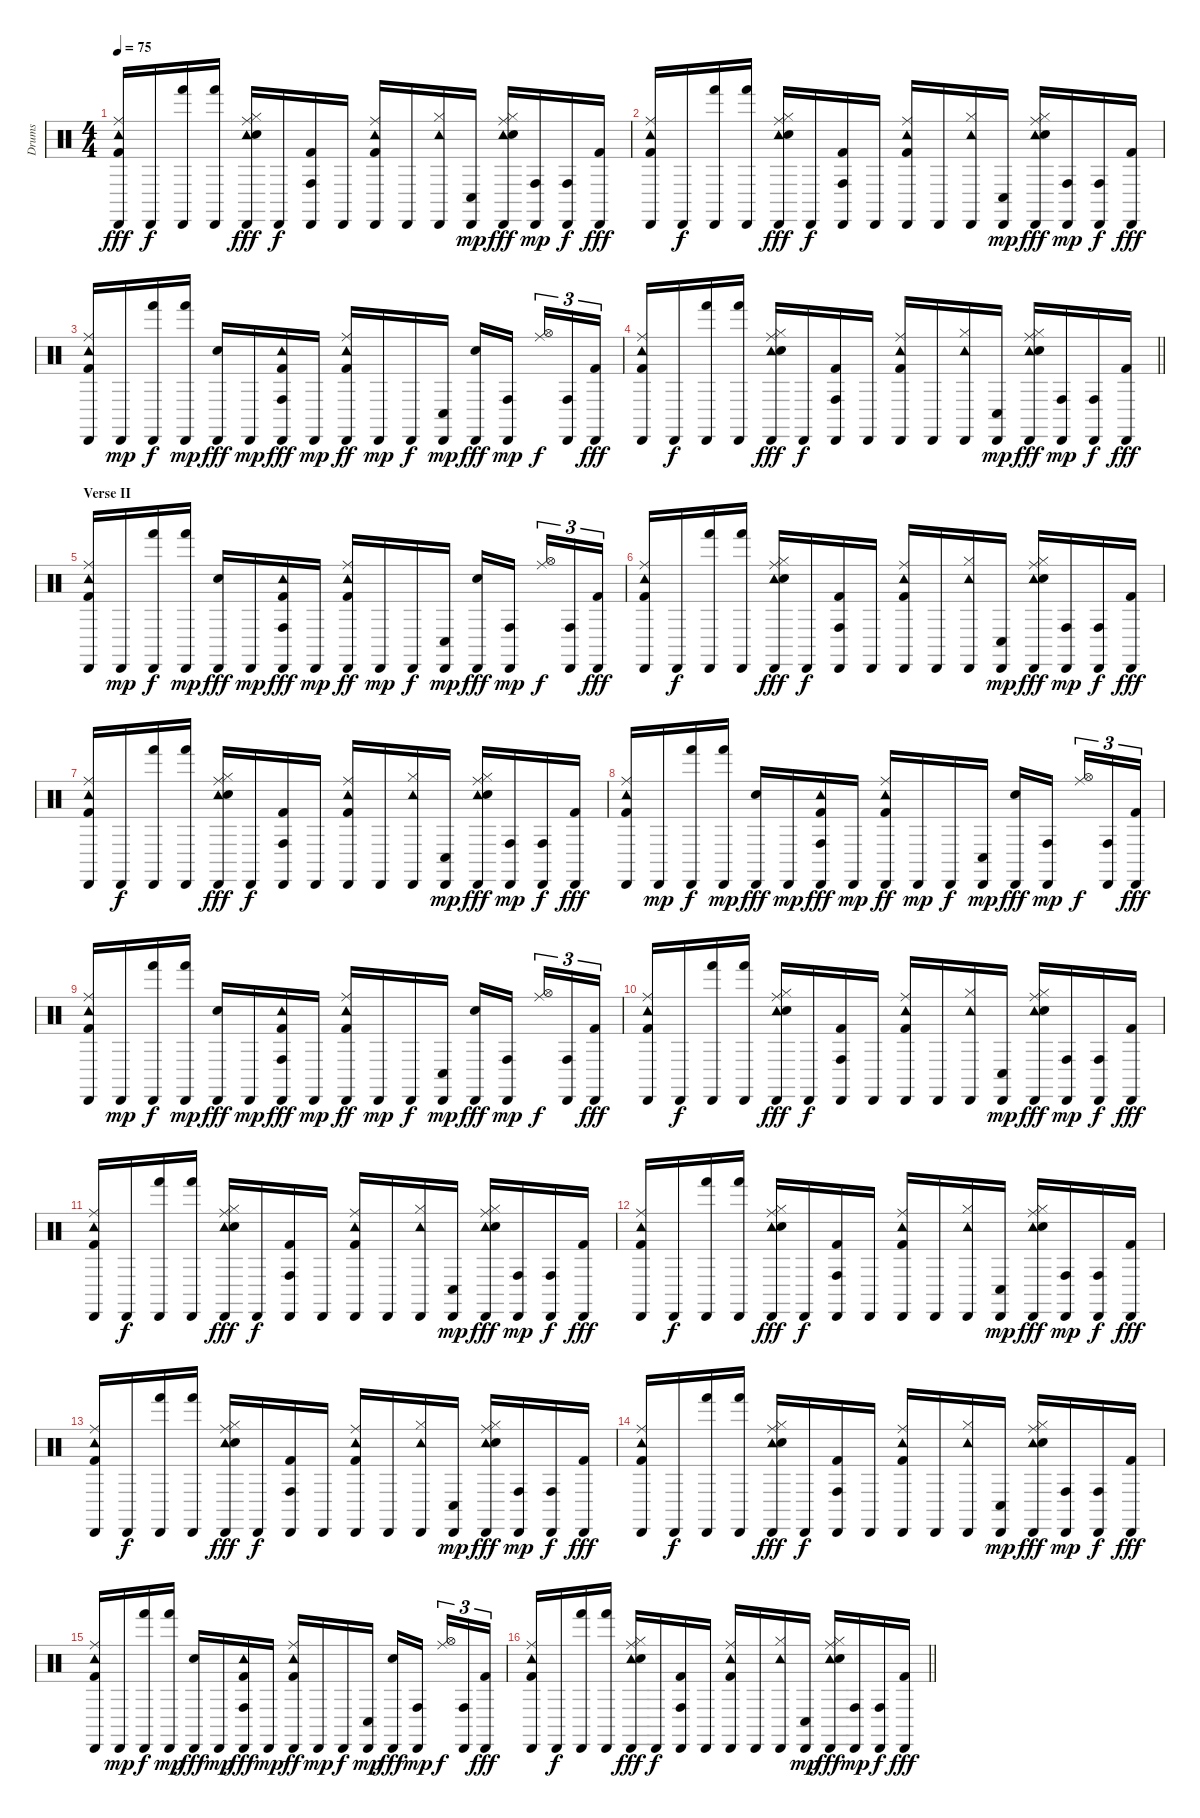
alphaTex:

\track ("Drums" "Drums") {instrument percussion}
\staff {score}
\articulation defaults
\ts (4 4)
\tempo 75
\clef neutral
\ks c
("Ride (middle)" "Tambourine (hit)" "Kick (hit) 2" "Cabasa (hit)").16{dy fff} "Cabasa (hit)".16{dy f} ("Hand (hit)" "Cabasa (hit)").16 ("Hand (hit)" "Cabasa (hit)").16 ("Cabasa (hit)" "Hi-Hat (closed)" "Tambourine (hit)" "Snare (hit) 2" "Ride (middle)").16{dy fff} "Cabasa (hit)".16{dy f} ("Conga high (hit)" "Kick (hit) 2" "Cabasa (hit)").16 "Cabasa (hit)".16 ("Ride (middle)" "Tambourine (hit)" "Kick (hit) 2" "Cabasa (hit)").16 "Cabasa (hit)".16 ("Cabasa (hit)" "Hi-Hat (closed)" "Tambourine (hit)").16 ("Cabasa (hit)" "Conga low (hit)").16{dy mp} ("Cabasa (hit)" "Hi-Hat (closed)" "Tambourine (hit)" "Snare (hit) 2" "Ride (middle)").16{dy fff} ("Cabasa (hit)" "Conga high (hit)").16{dy mp} ("Cabasa (hit)" "Conga high (hit)").16{dy f} ("Cabasa (hit)" "Kick (hit) 2").16{dy fff} |
("Ride (middle)" "Tambourine (hit)" "Kick (hit) 2" "Cabasa (hit)").16 "Cabasa (hit)".16{dy f} ("Hand (hit)" "Cabasa (hit)").16 ("Hand (hit)" "Cabasa (hit)").16 ("Cabasa (hit)" "Hi-Hat (closed)" "Tambourine (hit)" "Snare (hit) 2" "Ride (middle)").16{dy fff} "Cabasa (hit)".16{dy f} ("Conga high (hit)" "Kick (hit) 2" "Cabasa (hit)").16 "Cabasa (hit)".16 ("Ride (middle)" "Tambourine (hit)" "Kick (hit) 2" "Cabasa (hit)").16 "Cabasa (hit)".16 ("Cabasa (hit)" "Hi-Hat (closed)" "Tambourine (hit)").16 ("Cabasa (hit)" "Conga low (hit)").16{dy mp} ("Cabasa (hit)" "Hi-Hat (closed)" "Tambourine (hit)" "Snare (hit) 2" "Ride (middle)").16{dy fff} ("Cabasa (hit)" "Conga high (hit)").16{dy mp} ("Cabasa (hit)" "Conga high (hit)").16{dy f} ("Cabasa (hit)" "Kick (hit) 2").16{dy fff} |
("Cabasa (hit)" "Tambourine (hit)" "Kick (hit) 2" "Ride (middle)").16 "Cabasa (hit)".16{dy mp} ("Cabasa (hit)" "Hand (hit)").16{dy f} ("Cabasa (hit)" "Hand (hit)").16{dy mp} ("Cabasa (hit)" "Snare (hit) 2").16{dy fff} "Cabasa (hit)".16{dy mp} ("Cabasa (hit)" "Conga high (hit)" "Tambourine (hit)" "Kick (hit) 2").16{dy fff} "Cabasa (hit)".16{dy mp} ("Tambourine (hit)" "Kick (hit) 2" "Ride (middle)" "Cabasa (hit)").16{dy ff} "Cabasa (hit)".16{dy mp} "Cabasa (hit)".16{dy f} ("Cabasa (hit)" "Conga low (hit)").16{dy mp} ("Cabasa (hit)" "Snare (hit) 2").16{dy fff} ("Cabasa (hit)" "Conga high (hit)").16{dy mp beam splitsecondary} ("Ride (middle)" "Hi-Hat (open)").16{tu (3 2) dy f} ("Cabasa (hit)" "Conga high (hit)").16{tu (3 2)} ("Cabasa (hit)" "Kick (hit) 2").16{tu (3 2) dy fff} |
\barLineRight lightlight
("Ride (middle)" "Tambourine (hit)" "Kick (hit) 2" "Cabasa (hit)").16 "Cabasa (hit)".16{dy f} ("Hand (hit)" "Cabasa (hit)").16 ("Hand (hit)" "Cabasa (hit)").16 ("Cabasa (hit)" "Hi-Hat (closed)" "Tambourine (hit)" "Snare (hit) 2" "Ride (middle)").16{dy fff} "Cabasa (hit)".16{dy f} ("Conga high (hit)" "Kick (hit) 2" "Cabasa (hit)").16 "Cabasa (hit)".16 ("Ride (middle)" "Tambourine (hit)" "Kick (hit) 2" "Cabasa (hit)").16 "Cabasa (hit)".16 ("Cabasa (hit)" "Hi-Hat (closed)" "Tambourine (hit)").16 ("Cabasa (hit)" "Conga low (hit)").16{dy mp} ("Cabasa (hit)" "Hi-Hat (closed)" "Tambourine (hit)" "Snare (hit) 2" "Ride (middle)").16{dy fff} ("Cabasa (hit)" "Conga high (hit)").16{dy mp} ("Cabasa (hit)" "Conga high (hit)").16{dy f} ("Cabasa (hit)" "Kick (hit) 2").16{dy fff} |
\section ("" "Verse II")
("Cabasa (hit)" "Tambourine (hit)" "Kick (hit) 2" "Ride (middle)").16 "Cabasa (hit)".16{dy mp} ("Cabasa (hit)" "Hand (hit)").16{dy f} ("Cabasa (hit)" "Hand (hit)").16{dy mp} ("Cabasa (hit)" "Snare (hit) 2").16{dy fff} "Cabasa (hit)".16{dy mp} ("Cabasa (hit)" "Conga high (hit)" "Tambourine (hit)" "Kick (hit) 2").16{dy fff} "Cabasa (hit)".16{dy mp} ("Tambourine (hit)" "Kick (hit) 2" "Ride (middle)" "Cabasa (hit)").16{dy ff} "Cabasa (hit)".16{dy mp} "Cabasa (hit)".16{dy f} ("Cabasa (hit)" "Conga low (hit)").16{dy mp} ("Cabasa (hit)" "Snare (hit) 2").16{dy fff} ("Cabasa (hit)" "Conga high (hit)").16{dy mp beam splitsecondary} ("Ride (middle)" "Hi-Hat (open)").16{tu (3 2) dy f} ("Cabasa (hit)" "Conga high (hit)").16{tu (3 2)} ("Cabasa (hit)" "Kick (hit) 2").16{tu (3 2) dy fff} |
("Ride (middle)" "Tambourine (hit)" "Kick (hit) 2" "Cabasa (hit)").16 "Cabasa (hit)".16{dy f} ("Hand (hit)" "Cabasa (hit)").16 ("Hand (hit)" "Cabasa (hit)").16 ("Cabasa (hit)" "Hi-Hat (closed)" "Tambourine (hit)" "Snare (hit) 2" "Ride (middle)").16{dy fff} "Cabasa (hit)".16{dy f} ("Conga high (hit)" "Kick (hit) 2" "Cabasa (hit)").16 "Cabasa (hit)".16 ("Ride (middle)" "Tambourine (hit)" "Kick (hit) 2" "Cabasa (hit)").16 "Cabasa (hit)".16 ("Cabasa (hit)" "Hi-Hat (closed)" "Tambourine (hit)").16 ("Cabasa (hit)" "Conga low (hit)").16{dy mp} ("Cabasa (hit)" "Hi-Hat (closed)" "Tambourine (hit)" "Snare (hit) 2" "Ride (middle)").16{dy fff} ("Cabasa (hit)" "Conga high (hit)").16{dy mp} ("Cabasa (hit)" "Conga high (hit)").16{dy f} ("Cabasa (hit)" "Kick (hit) 2").16{dy fff} |
("Ride (middle)" "Tambourine (hit)" "Kick (hit) 2" "Cabasa (hit)").16 "Cabasa (hit)".16{dy f} ("Hand (hit)" "Cabasa (hit)").16 ("Hand (hit)" "Cabasa (hit)").16 ("Cabasa (hit)" "Hi-Hat (closed)" "Tambourine (hit)" "Snare (hit) 2" "Ride (middle)").16{dy fff} "Cabasa (hit)".16{dy f} ("Conga high (hit)" "Kick (hit) 2" "Cabasa (hit)").16 "Cabasa (hit)".16 ("Ride (middle)" "Tambourine (hit)" "Kick (hit) 2" "Cabasa (hit)").16 "Cabasa (hit)".16 ("Cabasa (hit)" "Hi-Hat (closed)" "Tambourine (hit)").16 ("Cabasa (hit)" "Conga low (hit)").16{dy mp} ("Cabasa (hit)" "Hi-Hat (closed)" "Tambourine (hit)" "Snare (hit) 2" "Ride (middle)").16{dy fff} ("Cabasa (hit)" "Conga high (hit)").16{dy mp} ("Cabasa (hit)" "Conga high (hit)").16{dy f} ("Cabasa (hit)" "Kick (hit) 2").16{dy fff} |
("Cabasa (hit)" "Tambourine (hit)" "Kick (hit) 2" "Ride (middle)").16 "Cabasa (hit)".16{dy mp} ("Cabasa (hit)" "Hand (hit)").16{dy f} ("Cabasa (hit)" "Hand (hit)").16{dy mp} ("Cabasa (hit)" "Snare (hit) 2").16{dy fff} "Cabasa (hit)".16{dy mp} ("Cabasa (hit)" "Conga high (hit)" "Tambourine (hit)" "Kick (hit) 2").16{dy fff} "Cabasa (hit)".16{dy mp} ("Tambourine (hit)" "Kick (hit) 2" "Ride (middle)" "Cabasa (hit)").16{dy ff} "Cabasa (hit)".16{dy mp} "Cabasa (hit)".16{dy f} ("Cabasa (hit)" "Conga low (hit)").16{dy mp} ("Cabasa (hit)" "Snare (hit) 2").16{dy fff} ("Cabasa (hit)" "Conga high (hit)").16{dy mp beam splitsecondary} ("Ride (middle)" "Hi-Hat (open)").16{tu (3 2) dy f} ("Cabasa (hit)" "Conga high (hit)").16{tu (3 2)} ("Cabasa (hit)" "Kick (hit) 2").16{tu (3 2) dy fff} |
("Cabasa (hit)" "Tambourine (hit)" "Kick (hit) 2" "Ride (middle)").16 "Cabasa (hit)".16{dy mp} ("Cabasa (hit)" "Hand (hit)").16{dy f} ("Cabasa (hit)" "Hand (hit)").16{dy mp} ("Cabasa (hit)" "Snare (hit) 2").16{dy fff} "Cabasa (hit)".16{dy mp} ("Cabasa (hit)" "Conga high (hit)" "Tambourine (hit)" "Kick (hit) 2").16{dy fff} "Cabasa (hit)".16{dy mp} ("Tambourine (hit)" "Kick (hit) 2" "Ride (middle)" "Cabasa (hit)").16{dy ff} "Cabasa (hit)".16{dy mp} "Cabasa (hit)".16{dy f} ("Cabasa (hit)" "Conga low (hit)").16{dy mp} ("Cabasa (hit)" "Snare (hit) 2").16{dy fff} ("Cabasa (hit)" "Conga high (hit)").16{dy mp beam splitsecondary} ("Ride (middle)" "Hi-Hat (open)").16{tu (3 2) dy f} ("Cabasa (hit)" "Conga high (hit)").16{tu (3 2)} ("Cabasa (hit)" "Kick (hit) 2").16{tu (3 2) dy fff} |
("Ride (middle)" "Tambourine (hit)" "Kick (hit) 2" "Cabasa (hit)").16 "Cabasa (hit)".16{dy f} ("Hand (hit)" "Cabasa (hit)").16 ("Hand (hit)" "Cabasa (hit)").16 ("Cabasa (hit)" "Hi-Hat (closed)" "Tambourine (hit)" "Snare (hit) 2" "Ride (middle)").16{dy fff} "Cabasa (hit)".16{dy f} ("Conga high (hit)" "Kick (hit) 2" "Cabasa (hit)").16 "Cabasa (hit)".16 ("Ride (middle)" "Tambourine (hit)" "Kick (hit) 2" "Cabasa (hit)").16 "Cabasa (hit)".16 ("Cabasa (hit)" "Hi-Hat (closed)" "Tambourine (hit)").16 ("Cabasa (hit)" "Conga low (hit)").16{dy mp} ("Cabasa (hit)" "Hi-Hat (closed)" "Tambourine (hit)" "Snare (hit) 2" "Ride (middle)").16{dy fff} ("Cabasa (hit)" "Conga high (hit)").16{dy mp} ("Cabasa (hit)" "Conga high (hit)").16{dy f} ("Cabasa (hit)" "Kick (hit) 2").16{dy fff} |
("Ride (middle)" "Tambourine (hit)" "Kick (hit) 2" "Cabasa (hit)").16 "Cabasa (hit)".16{dy f} ("Hand (hit)" "Cabasa (hit)").16 ("Hand (hit)" "Cabasa (hit)").16 ("Cabasa (hit)" "Hi-Hat (closed)" "Tambourine (hit)" "Snare (hit) 2" "Ride (middle)").16{dy fff} "Cabasa (hit)".16{dy f} ("Conga high (hit)" "Kick (hit) 2" "Cabasa (hit)").16 "Cabasa (hit)".16 ("Ride (middle)" "Tambourine (hit)" "Kick (hit) 2" "Cabasa (hit)").16 "Cabasa (hit)".16 ("Cabasa (hit)" "Hi-Hat (closed)" "Tambourine (hit)").16 ("Cabasa (hit)" "Conga low (hit)").16{dy mp} ("Cabasa (hit)" "Hi-Hat (closed)" "Tambourine (hit)" "Snare (hit) 2" "Ride (middle)").16{dy fff} ("Cabasa (hit)" "Conga high (hit)").16{dy mp} ("Cabasa (hit)" "Conga high (hit)").16{dy f} ("Cabasa (hit)" "Kick (hit) 2").16{dy fff} |
("Ride (middle)" "Tambourine (hit)" "Kick (hit) 2" "Cabasa (hit)").16 "Cabasa (hit)".16{dy f} ("Hand (hit)" "Cabasa (hit)").16 ("Hand (hit)" "Cabasa (hit)").16 ("Cabasa (hit)" "Hi-Hat (closed)" "Tambourine (hit)" "Snare (hit) 2" "Ride (middle)").16{dy fff} "Cabasa (hit)".16{dy f} ("Conga high (hit)" "Kick (hit) 2" "Cabasa (hit)").16 "Cabasa (hit)".16 ("Ride (middle)" "Tambourine (hit)" "Kick (hit) 2" "Cabasa (hit)").16 "Cabasa (hit)".16 ("Cabasa (hit)" "Hi-Hat (closed)" "Tambourine (hit)").16 ("Cabasa (hit)" "Conga low (hit)").16{dy mp} ("Cabasa (hit)" "Hi-Hat (closed)" "Tambourine (hit)" "Snare (hit) 2" "Ride (middle)").16{dy fff} ("Cabasa (hit)" "Conga high (hit)").16{dy mp} ("Cabasa (hit)" "Conga high (hit)").16{dy f} ("Cabasa (hit)" "Kick (hit) 2").16{dy fff} |
("Ride (middle)" "Tambourine (hit)" "Kick (hit) 2" "Cabasa (hit)").16 "Cabasa (hit)".16{dy f} ("Hand (hit)" "Cabasa (hit)").16 ("Hand (hit)" "Cabasa (hit)").16 ("Cabasa (hit)" "Hi-Hat (closed)" "Tambourine (hit)" "Snare (hit) 2" "Ride (middle)").16{dy fff} "Cabasa (hit)".16{dy f} ("Conga high (hit)" "Kick (hit) 2" "Cabasa (hit)").16 "Cabasa (hit)".16 ("Ride (middle)" "Tambourine (hit)" "Kick (hit) 2" "Cabasa (hit)").16 "Cabasa (hit)".16 ("Cabasa (hit)" "Hi-Hat (closed)" "Tambourine (hit)").16 ("Cabasa (hit)" "Conga low (hit)").16{dy mp} ("Cabasa (hit)" "Hi-Hat (closed)" "Tambourine (hit)" "Snare (hit) 2" "Ride (middle)").16{dy fff} ("Cabasa (hit)" "Conga high (hit)").16{dy mp} ("Cabasa (hit)" "Conga high (hit)").16{dy f} ("Cabasa (hit)" "Kick (hit) 2").16{dy fff} |
("Ride (middle)" "Tambourine (hit)" "Kick (hit) 2" "Cabasa (hit)").16 "Cabasa (hit)".16{dy f} ("Hand (hit)" "Cabasa (hit)").16 ("Hand (hit)" "Cabasa (hit)").16 ("Cabasa (hit)" "Hi-Hat (closed)" "Tambourine (hit)" "Snare (hit) 2" "Ride (middle)").16{dy fff} "Cabasa (hit)".16{dy f} ("Conga high (hit)" "Kick (hit) 2" "Cabasa (hit)").16 "Cabasa (hit)".16 ("Ride (middle)" "Tambourine (hit)" "Kick (hit) 2" "Cabasa (hit)").16 "Cabasa (hit)".16 ("Cabasa (hit)" "Hi-Hat (closed)" "Tambourine (hit)").16 ("Cabasa (hit)" "Conga low (hit)").16{dy mp} ("Cabasa (hit)" "Hi-Hat (closed)" "Tambourine (hit)" "Snare (hit) 2" "Ride (middle)").16{dy fff} ("Cabasa (hit)" "Conga high (hit)").16{dy mp} ("Cabasa (hit)" "Conga high (hit)").16{dy f} ("Cabasa (hit)" "Kick (hit) 2").16{dy fff} |
("Cabasa (hit)" "Tambourine (hit)" "Kick (hit) 2" "Ride (middle)").16 "Cabasa (hit)".16{dy mp} ("Cabasa (hit)" "Hand (hit)").16{dy f} ("Cabasa (hit)" "Hand (hit)").16{dy mp} ("Cabasa (hit)" "Snare (hit) 2").16{dy fff} "Cabasa (hit)".16{dy mp} ("Cabasa (hit)" "Conga high (hit)" "Tambourine (hit)" "Kick (hit) 2").16{dy fff} "Cabasa (hit)".16{dy mp} ("Tambourine (hit)" "Kick (hit) 2" "Ride (middle)" "Cabasa (hit)").16{dy ff} "Cabasa (hit)".16{dy mp} "Cabasa (hit)".16{dy f} ("Cabasa (hit)" "Conga low (hit)").16{dy mp} ("Cabasa (hit)" "Snare (hit) 2").16{dy fff} ("Cabasa (hit)" "Conga high (hit)").16{dy mp beam splitsecondary} ("Ride (middle)" "Hi-Hat (open)").16{tu (3 2) dy f} ("Cabasa (hit)" "Conga high (hit)").16{tu (3 2)} ("Cabasa (hit)" "Kick (hit) 2").16{tu (3 2) dy fff} |
\barLineRight lightlight
("Ride (middle)" "Tambourine (hit)" "Kick (hit) 2" "Cabasa (hit)").16 "Cabasa (hit)".16{dy f} ("Hand (hit)" "Cabasa (hit)").16 ("Hand (hit)" "Cabasa (hit)").16 ("Cabasa (hit)" "Hi-Hat (closed)" "Tambourine (hit)" "Snare (hit) 2" "Ride (middle)").16{dy fff} "Cabasa (hit)".16{dy f} ("Conga high (hit)" "Kick (hit) 2" "Cabasa (hit)").16 "Cabasa (hit)".16 ("Ride (middle)" "Tambourine (hit)" "Kick (hit) 2" "Cabasa (hit)").16 "Cabasa (hit)".16 ("Cabasa (hit)" "Hi-Hat (closed)" "Tambourine (hit)").16 ("Cabasa (hit)" "Conga low (hit)").16{dy mp} ("Cabasa (hit)" "Hi-Hat (closed)" "Tambourine (hit)" "Snare (hit) 2" "Ride (middle)").16{dy fff} ("Cabasa (hit)" "Conga high (hit)").16{dy mp} ("Cabasa (hit)" "Conga high (hit)").16{dy f} ("Cabasa (hit)" "Kick (hit) 2").16{dy fff}
